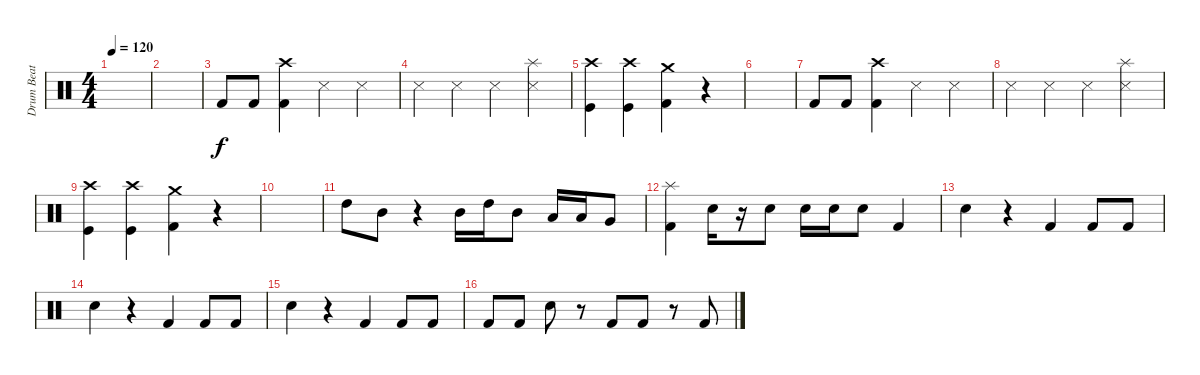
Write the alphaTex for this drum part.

\track ("Drum Beat" "Drum Beat") {instrument percussion}
\staff {score}
\articulation defaults
\ts (4 4)
\tempo 120
\clef neutral
\ks c
|
|
"Kick (hit) 2".8 "Kick (hit) 2".8 ("Kick (hit) 2" "Crash high (hit)").4 "Snare (side stick) 3".4 "Snare (side stick) 3".4 |
"Snare (side stick) 3".4 "Snare (side stick) 3".4 "Snare (side stick) 3".4 ("Snare (side stick) 3" "Splash (hit)").4 |
("Kick (hit)" "Crash high (hit)").4 ("Crash high (hit)" "Kick (hit)").4 ("Kick (hit) 2" "Crash medium (hit)").4 r.4 |
|
"Kick (hit) 2".8 "Kick (hit) 2".8 ("Kick (hit) 2" "Crash high (hit)").4 "Snare (side stick) 3".4 "Snare (side stick) 3".4 |
"Snare (side stick) 3".4 "Snare (side stick) 3".4 "Snare (side stick) 3".4 ("Snare (side stick) 3" "Splash (hit)").4 |
("Kick (hit)" "Crash high (hit)").4 ("Crash high (hit)" "Kick (hit)").4 ("Kick (hit) 2" "Crash medium (hit)").4 r.4 |
|
"High Tom (hit)".8 "Mid Tom (hit)".8 r.4 "Mid Tom (hit)".16 "High Tom (hit)".16 "Mid Tom (hit)".8 "Low Tom (hit)".16 "Low Tom (hit)".16 "Very Low Tom (hit)".8 |
("Kick (hit) 2" "Splash (hit)").4 "Electric Snare (hit)".16 r.16 "Electric Snare (hit)".8 "Electric Snare (hit)".16 "Electric Snare (hit)".16 "Electric Snare (hit)".8 "Kick (hit) 2".4 |
"Snare (hit) 2".4 r.4 "Kick (hit) 2".4 "Kick (hit) 2".8 "Kick (hit) 2".8 |
"Snare (hit) 2".4 r.4 "Kick (hit) 2".4 "Kick (hit) 2".8 "Kick (hit) 2".8 |
"Snare (hit) 2".4 r.4 "Kick (hit) 2".4 "Kick (hit) 2".8 "Kick (hit) 2".8 |
"Kick (hit) 2".8 "Kick (hit) 2".8 "Electric Snare (hit)".8 r.8 "Kick (hit) 2".8 "Kick (hit) 2".8 r.8 "Kick (hit) 2".8
